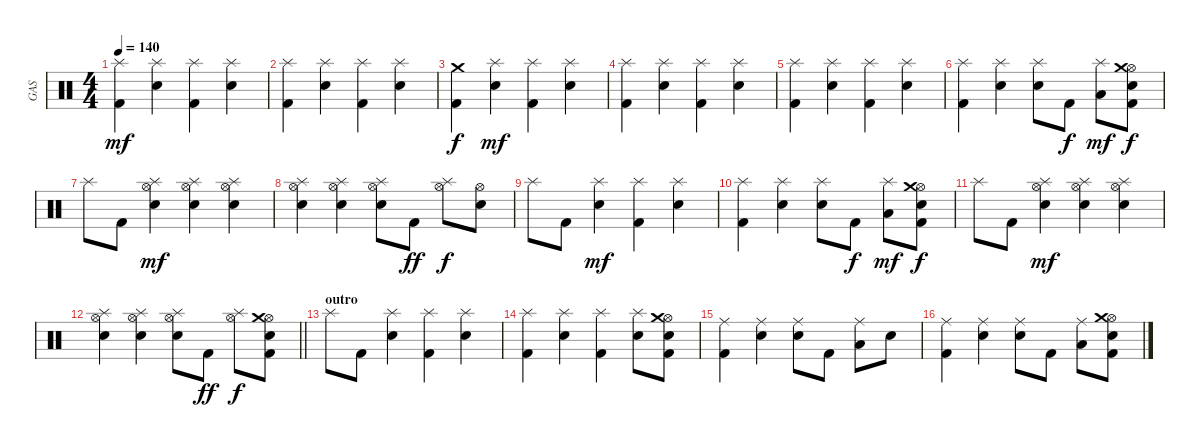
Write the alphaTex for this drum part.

\track ("GAS" "GAS") {instrument percussion}
\staff {score}
\articulation defaults
\ts (4 4)
\tempo 140
\clef neutral
\ks c
("Kick (hit) 2" "Splash (hit)").4{dy mf} ("Electric Snare (hit)" "Splash (hit)").4 ("Kick (hit) 2" "Splash (hit)").4 ("Electric Snare (hit)" "Splash (hit)").4 |
("Kick (hit) 2" "Splash (hit)").4 ("Electric Snare (hit)" "Splash (hit)").4 ("Kick (hit) 2" "Splash (hit)").4 ("Electric Snare (hit)" "Splash (hit)").4 |
("Kick (hit) 2" "Crash medium (hit)").4{dy f} ("Electric Snare (hit)" "Splash (hit)").4{dy mf} ("Kick (hit) 2" "Splash (hit)").4 ("Electric Snare (hit)" "Splash (hit)").4 |
("Kick (hit) 2" "Splash (hit)").4 ("Electric Snare (hit)" "Splash (hit)").4 ("Kick (hit) 2" "Splash (hit)").4 ("Electric Snare (hit)" "Splash (hit)").4 |
("Kick (hit) 2" "Splash (hit)").4 ("Electric Snare (hit)" "Splash (hit)").4 ("Kick (hit) 2" "Splash (hit)").4 ("Electric Snare (hit)" "Splash (hit)").4 |
("Kick (hit) 2" "Splash (hit)").4 ("Electric Snare (hit)" "Splash (hit)").4 ("Electric Snare (hit)" "Splash (hit)").8 "Kick (hit) 2".8{dy f} ("Low Tom (hit)" "Splash (hit)").8{dy mf} ("Kick (hit) 2" "Electric Snare (hit)" "Hi-Hat (open)" "Crash medium (hit)").8{dy f} |
"Splash (hit)".8 "Kick (hit) 2".8 ("Electric Snare (hit)" "Hi-Hat (open)" "Splash (hit)").4{dy mf} ("Electric Snare (hit)" "Hi-Hat (open)" "Splash (hit)").4 ("Electric Snare (hit)" "Hi-Hat (open)" "Splash (hit)").4 |
("Electric Snare (hit)" "Hi-Hat (open)" "Splash (hit)").4 ("Electric Snare (hit)" "Hi-Hat (open)" "Splash (hit)").4 ("Electric Snare (hit)" "Hi-Hat (open)" "Splash (hit)").8 "Kick (hit) 2".8{dy ff} ("Hi-Hat (open)" "Splash (hit)").8{dy f} ("Electric Snare (hit)" "Hi-Hat (open)").8 |
"Splash (hit)".8 "Kick (hit) 2".8 ("Electric Snare (hit)" "Splash (hit)").4{dy mf} ("Kick (hit) 2" "Splash (hit)").4 ("Electric Snare (hit)" "Splash (hit)").4 |
("Kick (hit) 2" "Splash (hit)").4 ("Electric Snare (hit)" "Splash (hit)").4 ("Electric Snare (hit)" "Splash (hit)").8 "Kick (hit) 2".8{dy f} ("Low Tom (hit)" "Splash (hit)").8{dy mf} ("Kick (hit) 2" "Electric Snare (hit)" "Hi-Hat (open)" "Crash medium (hit)").8{dy f} |
"Splash (hit)".8 "Kick (hit) 2".8 ("Electric Snare (hit)" "Hi-Hat (open)" "Splash (hit)").4{dy mf} ("Electric Snare (hit)" "Hi-Hat (open)" "Splash (hit)").4 ("Electric Snare (hit)" "Hi-Hat (open)" "Splash (hit)").4 |
\barLineRight lightlight
("Electric Snare (hit)" "Hi-Hat (open)" "Splash (hit)").4 ("Electric Snare (hit)" "Hi-Hat (open)" "Splash (hit)").4 ("Electric Snare (hit)" "Hi-Hat (open)" "Splash (hit)").8 "Kick (hit) 2".8{dy ff} ("Hi-Hat (open)" "Splash (hit)").8{dy f} ("Kick (hit) 2" "Electric Snare (hit)" "Hi-Hat (open)" "Crash medium (hit)").8 |
\section ("" "outro")
"Splash (hit)".8 "Kick (hit) 2".8 ("Electric Snare (hit)" "Splash (hit)").4 ("Kick (hit) 2" "Splash (hit)").4 ("Electric Snare (hit)" "Splash (hit)").4 |
("Kick (hit) 2" "Splash (hit)").4 ("Electric Snare (hit)" "Splash (hit)").4 ("Kick (hit) 2" "Splash (hit)").4 ("Electric Snare (hit)" "Splash (hit)").8 ("Kick (hit) 2" "Electric Snare (hit)" "Hi-Hat (open)" "Crash medium (hit)").8 |
("Kick (hit) 2" "Ride (middle)").4 ("Electric Snare (hit)" "Ride (middle)").4 ("Electric Snare (hit)" "Ride (middle)").8 "Kick (hit) 2".8 ("Low Tom (hit)" "Ride (middle)").8 "Electric Snare (hit)".8 |
("Kick (hit) 2" "Ride (middle)").4 ("Electric Snare (hit)" "Ride (middle)").4 ("Electric Snare (hit)" "Ride (middle)").8 "Kick (hit) 2".8 ("Low Tom (hit)" "Ride (middle)").8 ("Kick (hit) 2" "Electric Snare (hit)" "Hi-Hat (open)" "Crash medium (hit)").8
